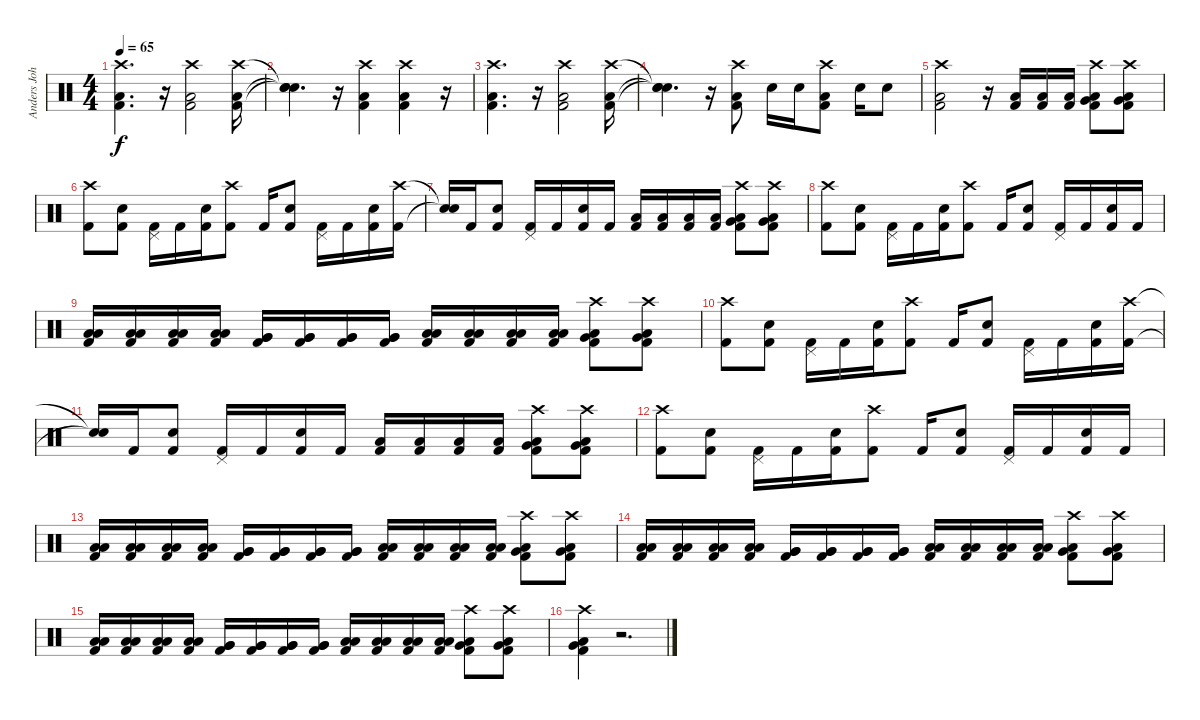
\track ("Anders Johansson" "Anders Joh") {instrument percussion}
\staff {score}
\articulation defaults
\ts (4 4)
\tempo 65
\clef neutral
\ks c
("Crash high (hit)" "Low Floor Tom (hit)" "Kick (hit) 2").4{d dy f} r.16 ("Crash high (hit)" "Low Floor Tom (hit)" "Kick (hit) 2").2 ("Crash high (hit)" "Low Floor Tom (hit)" "Kick (hit) 2").16 |
("Snare (hit)"{t} "Snare (hit)"{t} "Snare (hit)"{t}).4{d} r.16 ("Crash high (hit)" "Low Floor Tom (hit)" "Kick (hit) 2").4 ("Crash high (hit)" "Low Floor Tom (hit)" "Kick (hit) 2").4 r.16 |
("Crash high (hit)" "Low Floor Tom (hit)" "Kick (hit) 2").4{d} r.16 ("Crash high (hit)" "Low Floor Tom (hit)" "Kick (hit) 2").2 ("Crash high (hit)" "Low Floor Tom (hit)" "Kick (hit) 2").16 |
("Snare (hit)"{t} "Snare (hit)"{t} "Snare (hit)"{t}).4{d} r.16 ("Crash high (hit)" "Low Floor Tom (hit)" "Kick (hit) 2").8 "Electric Snare (hit)".16 "Electric Snare (hit)".16 ("Crash high (hit)" "Low Floor Tom (hit)" "Kick (hit) 2").8 "Electric Snare (hit)".16 "Electric Snare (hit)".8 |
("Crash high (hit)" "Low Floor Tom (hit)" "Kick (hit) 2").2 r.16 ("Low Floor Tom (hit)" "Kick (hit) 2").16 ("Low Floor Tom (hit)" "Kick (hit) 2").16 ("Low Floor Tom (hit)" "Kick (hit) 2").16 ("Crash high (hit)" "Low Floor Tom (hit)" "Very Low Tom (hit)" "Kick (hit) 2").8 ("Crash high (hit)" "Low Floor Tom (hit)" "Very Low Tom (hit)" "Kick (hit) 2").8 |
("Crash high (hit)" "Kick (hit) 2").8 ("Electric Snare (hit)" "Kick (hit) 2").8 ("Pedal Hi-Hat (hit)" "Kick (hit) 2").16 "Kick (hit) 2".16 ("Electric Snare (hit)" "Kick (hit) 2").16 ("Crash high (hit)" "Kick (hit) 2").8 "Kick (hit) 2".16 ("Electric Snare (hit)" "Kick (hit) 2").8 ("Pedal Hi-Hat (hit)" "Kick (hit) 2").16 "Kick (hit) 2".16 ("Electric Snare (hit)" "Kick (hit) 2").16 ("Crash high (hit)" "Kick (hit) 2").16 |
("Snare (hit)"{t} "Snare (hit)"{t}).16 "Kick (hit) 2".16 ("Electric Snare (hit)" "Kick (hit) 2").8 ("Pedal Hi-Hat (hit)" "Kick (hit) 2").16 "Kick (hit) 2".16 ("Electric Snare (hit)" "Kick (hit) 2").16 "Kick (hit) 2".16 ("Low Floor Tom (hit)" "Kick (hit) 2").16 ("Low Floor Tom (hit)" "Kick (hit) 2").16 ("Low Floor Tom (hit)" "Kick (hit) 2").16 ("Low Floor Tom (hit)" "Kick (hit) 2").16 ("Crash high (hit)" "Very Low Tom (hit)" "Low Floor Tom (hit)" "Kick (hit) 2").8 ("Crash high (hit)" "Very Low Tom (hit)" "Low Floor Tom (hit)" "Kick (hit) 2").8 |
("Crash high (hit)" "Kick (hit) 2").8 ("Electric Snare (hit)" "Kick (hit) 2").8 ("Pedal Hi-Hat (hit)" "Kick (hit) 2").16 "Kick (hit) 2".16 ("Electric Snare (hit)" "Kick (hit) 2").16 ("Crash high (hit)" "Kick (hit) 2").8 "Kick (hit) 2".16 ("Electric Snare (hit)" "Kick (hit) 2").8 ("Pedal Hi-Hat (hit)" "Kick (hit) 2").16 "Kick (hit) 2".16 ("Electric Snare (hit)" "Kick (hit) 2").16 "Kick (hit) 2".16 |
("Low Floor Tom (hit)" "Low Floor Tom (hit)" "Kick (hit) 2").16 ("Low Floor Tom (hit)" "Low Floor Tom (hit)" "Kick (hit) 2").16 ("Low Floor Tom (hit)" "Low Floor Tom (hit)" "Kick (hit) 2").16 ("Low Floor Tom (hit)" "Low Floor Tom (hit)" "Kick (hit) 2").16 ("Very Low Tom (hit)" "Very Low Tom (hit)" "Kick (hit) 2").16 ("Very Low Tom (hit)" "Very Low Tom (hit)" "Kick (hit) 2").16 ("Very Low Tom (hit)" "Very Low Tom (hit)" "Kick (hit) 2").16 ("Very Low Tom (hit)" "Very Low Tom (hit)" "Kick (hit) 2").16 ("Low Tom (hit)" "Low Tom (hit)" "Kick (hit) 2").16 ("Low Tom (hit)" "Low Tom (hit)" "Kick (hit) 2").16 ("Low Tom (hit)" "Low Tom (hit)" "Kick (hit) 2").16 ("Low Tom (hit)" "Low Tom (hit)" "Kick (hit) 2").16 ("Crash high (hit)" "Very Low Tom (hit)" "Low Floor Tom (hit)" "Kick (hit) 2").8 ("Crash high (hit)" "Very Low Tom (hit)" "Low Floor Tom (hit)" "Kick (hit) 2").8 |
("Crash high (hit)" "Kick (hit) 2").8 ("Electric Snare (hit)" "Kick (hit) 2").8 ("Pedal Hi-Hat (hit)" "Kick (hit) 2").16 "Kick (hit) 2".16 ("Electric Snare (hit)" "Kick (hit) 2").16 ("Crash high (hit)" "Kick (hit) 2").8 "Kick (hit) 2".16 ("Electric Snare (hit)" "Kick (hit) 2").8 ("Pedal Hi-Hat (hit)" "Kick (hit) 2").16 "Kick (hit) 2".16 ("Electric Snare (hit)" "Kick (hit) 2").16 ("Crash high (hit)" "Kick (hit) 2").16 |
("Snare (hit)"{t} "Snare (hit)"{t}).16 "Kick (hit) 2".16 ("Electric Snare (hit)" "Kick (hit) 2").8 ("Pedal Hi-Hat (hit)" "Kick (hit) 2").16 "Kick (hit) 2".16 ("Electric Snare (hit)" "Kick (hit) 2").16 "Kick (hit) 2".16 ("Low Floor Tom (hit)" "Kick (hit) 2").16 ("Low Floor Tom (hit)" "Kick (hit) 2").16 ("Low Floor Tom (hit)" "Kick (hit) 2").16 ("Low Floor Tom (hit)" "Kick (hit) 2").16 ("Crash high (hit)" "Very Low Tom (hit)" "Low Floor Tom (hit)" "Kick (hit) 2").8 ("Crash high (hit)" "Very Low Tom (hit)" "Low Floor Tom (hit)" "Kick (hit) 2").8 |
("Crash high (hit)" "Kick (hit) 2").8 ("Electric Snare (hit)" "Kick (hit) 2").8 ("Pedal Hi-Hat (hit)" "Kick (hit) 2").16 "Kick (hit) 2".16 ("Electric Snare (hit)" "Kick (hit) 2").16 ("Crash high (hit)" "Kick (hit) 2").8 "Kick (hit) 2".16 ("Electric Snare (hit)" "Kick (hit) 2").8 ("Pedal Hi-Hat (hit)" "Kick (hit) 2").16 "Kick (hit) 2".16 ("Electric Snare (hit)" "Kick (hit) 2").16 "Kick (hit) 2".16 |
("Low Floor Tom (hit)" "Low Floor Tom (hit)" "Kick (hit) 2").16 ("Low Floor Tom (hit)" "Low Floor Tom (hit)" "Kick (hit) 2").16 ("Low Floor Tom (hit)" "Low Floor Tom (hit)" "Kick (hit) 2").16 ("Low Floor Tom (hit)" "Low Floor Tom (hit)" "Kick (hit) 2").16 ("Very Low Tom (hit)" "Very Low Tom (hit)" "Kick (hit) 2").16 ("Very Low Tom (hit)" "Very Low Tom (hit)" "Kick (hit) 2").16 ("Very Low Tom (hit)" "Very Low Tom (hit)" "Kick (hit) 2").16 ("Very Low Tom (hit)" "Very Low Tom (hit)" "Kick (hit) 2").16 ("Low Tom (hit)" "Low Tom (hit)" "Kick (hit) 2").16 ("Low Tom (hit)" "Low Tom (hit)" "Kick (hit) 2").16 ("Low Tom (hit)" "Low Tom (hit)" "Kick (hit) 2").16 ("Low Tom (hit)" "Low Tom (hit)" "Kick (hit) 2").16 ("Crash high (hit)" "Very Low Tom (hit)" "Low Floor Tom (hit)" "Kick (hit) 2").8 ("Crash high (hit)" "Very Low Tom (hit)" "Low Floor Tom (hit)" "Kick (hit) 2").8 |
("Low Floor Tom (hit)" "Low Floor Tom (hit)" "Kick (hit) 2").16 ("Low Floor Tom (hit)" "Low Floor Tom (hit)" "Kick (hit) 2").16 ("Low Floor Tom (hit)" "Low Floor Tom (hit)" "Kick (hit) 2").16 ("Low Floor Tom (hit)" "Low Floor Tom (hit)" "Kick (hit) 2").16 ("Very Low Tom (hit)" "Very Low Tom (hit)" "Kick (hit) 2").16 ("Very Low Tom (hit)" "Very Low Tom (hit)" "Kick (hit) 2").16 ("Very Low Tom (hit)" "Very Low Tom (hit)" "Kick (hit) 2").16 ("Very Low Tom (hit)" "Very Low Tom (hit)" "Kick (hit) 2").16 ("Low Tom (hit)" "Low Tom (hit)" "Kick (hit) 2").16 ("Low Tom (hit)" "Low Tom (hit)" "Kick (hit) 2").16 ("Low Tom (hit)" "Low Tom (hit)" "Kick (hit) 2").16 ("Low Tom (hit)" "Low Tom (hit)" "Kick (hit) 2").16 ("Crash high (hit)" "Very Low Tom (hit)" "Low Floor Tom (hit)" "Kick (hit) 2").8 ("Crash high (hit)" "Very Low Tom (hit)" "Low Floor Tom (hit)" "Kick (hit) 2").8 |
("Low Floor Tom (hit)" "Low Floor Tom (hit)" "Kick (hit) 2").16 ("Low Floor Tom (hit)" "Low Floor Tom (hit)" "Kick (hit) 2").16 ("Low Floor Tom (hit)" "Low Floor Tom (hit)" "Kick (hit) 2").16 ("Low Floor Tom (hit)" "Low Floor Tom (hit)" "Kick (hit) 2").16 ("Very Low Tom (hit)" "Very Low Tom (hit)" "Kick (hit) 2").16 ("Very Low Tom (hit)" "Very Low Tom (hit)" "Kick (hit) 2").16 ("Very Low Tom (hit)" "Very Low Tom (hit)" "Kick (hit) 2").16 ("Very Low Tom (hit)" "Very Low Tom (hit)" "Kick (hit) 2").16 ("Low Tom (hit)" "Low Tom (hit)" "Kick (hit) 2").16 ("Low Tom (hit)" "Low Tom (hit)" "Kick (hit) 2").16 ("Low Tom (hit)" "Low Tom (hit)" "Kick (hit) 2").16 ("Low Tom (hit)" "Low Tom (hit)" "Kick (hit) 2").16 ("Crash high (hit)" "Very Low Tom (hit)" "Low Floor Tom (hit)" "Kick (hit) 2").8 ("Crash high (hit)" "Very Low Tom (hit)" "Low Floor Tom (hit)" "Kick (hit) 2").8 |
("Crash high (hit)" "Very Low Tom (hit)" "Low Floor Tom (hit)" "Kick (hit) 2").4 r.2{d}
